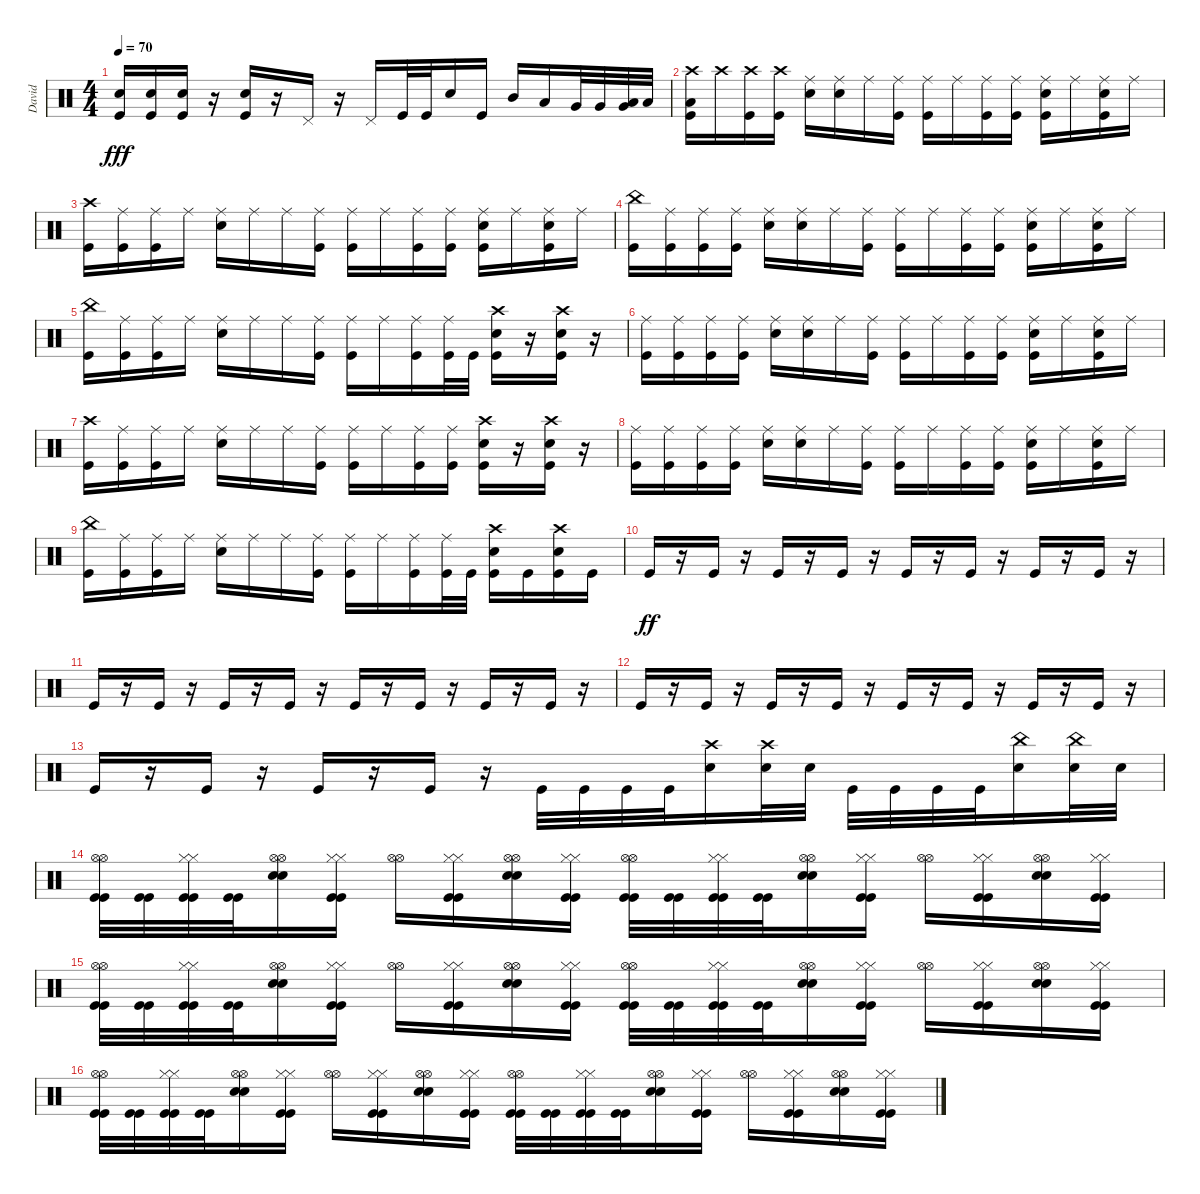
\track ("David" "David") {instrument percussion}
\staff {score}
\articulation defaults
\ts (4 4)
\tempo 70
\clef neutral
\ks c
("Kick (hit)" "Snare (hit) 2").16{dy fff} ("Kick (hit)" "Snare (hit) 2").16 ("Kick (hit)" "Snare (hit) 2").16 r.16 ("Kick (hit)" "Snare (hit) 2").16 r.16 "Pedal Hi-Hat (hit)".16 r.16 "Pedal Hi-Hat (hit)".16 "Kick (hit)".32 "Kick (hit)".32 "Snare (hit) 2".16 "Kick (hit)".16 "Mid Tom (hit)".16 "Low Tom (hit)".16 "Very Low Tom (hit)".32 "Very Low Tom (hit)".32 ("Very Low Tom (hit)" "Low Floor Tom (hit)").32 "Low Floor Tom (hit)".32 |
("Low Floor Tom (hit)" "Crash high (hit)" "Kick (hit)").16 "Crash high (hit)".16 ("Crash high (hit)" "Kick (hit)").16 ("Crash high (hit)" "Kick (hit)").16 ("Snare (hit) 2" "Ride (middle)").16 ("Snare (hit) 2" "Ride (middle)").16 "Ride (middle)".16 ("Kick (hit)" "Ride (middle)").16 ("Kick (hit)" "Ride (middle)").16 "Ride (middle)".16 ("Kick (hit)" "Ride (middle)").16 ("Kick (hit)" "Ride (middle)").16 ("Kick (hit)" "Snare (hit) 2" "Ride (middle)").16 "Ride (middle)".16 ("Kick (hit)" "Snare (hit) 2" "Ride (middle)").16 "Ride (middle)".16 |
("Kick (hit)" "Crash high (hit)").16 ("Kick (hit)" "Ride (middle)").16 ("Kick (hit)" "Ride (middle)").16 "Ride (middle)".16 ("Snare (hit) 2" "Ride (middle)").16 "Ride (middle)".16 "Ride (middle)".16 ("Kick (hit)" "Ride (middle)").16 ("Kick (hit)" "Ride (middle)").16 "Ride (middle)".16 ("Kick (hit)" "Ride (middle)").16 ("Kick (hit)" "Ride (middle)").16 ("Ride (middle)" "Kick (hit)" "Snare (hit) 2").16 "Ride (middle)".16 ("Ride (middle)" "Kick (hit)" "Snare (hit) 2").16 "Ride (middle)".16 |
("China (hit)" "Kick (hit)").16 ("Ride (middle)" "Kick (hit)").16 ("Ride (middle)" "Kick (hit)").16 ("Ride (middle)" "Kick (hit)").16 ("Ride (middle)" "Snare (hit) 2").16 ("Ride (middle)" "Snare (hit) 2").16 "Ride (middle)".16 ("Ride (middle)" "Kick (hit)").16 ("Ride (middle)" "Kick (hit)").16 "Ride (middle)".16 ("Ride (middle)" "Kick (hit)").16 ("Ride (middle)" "Kick (hit)").16 ("Ride (middle)" "Snare (hit) 2" "Kick (hit)").16 "Ride (middle)".16 ("Ride (middle)" "Snare (hit) 2" "Kick (hit)").16 "Ride (middle)".16 |
("China (hit)" "Kick (hit)").16 ("Ride (middle)" "Kick (hit)").16 ("Ride (middle)" "Kick (hit)").16 "Ride (middle)".16 ("Ride (middle)" "Snare (hit) 2").16 "Ride (middle)".16 "Ride (middle)".16 ("Ride (middle)" "Kick (hit)").16 ("Ride (middle)" "Kick (hit)").16 "Ride (middle)".16 ("Ride (middle)" "Kick (hit)").16 ("Ride (middle)" "Kick (hit)").32 "Kick (hit)".32 ("Crash high (hit)" "Snare (hit) 2" "Kick (hit)").16 r.16 ("Crash high (hit)" "Snare (hit) 2" "Kick (hit)").16 r.16 |
("Ride (middle)" "Kick (hit)").16 ("Ride (middle)" "Kick (hit)").16 ("Ride (middle)" "Kick (hit)").16 ("Ride (middle)" "Kick (hit)").16 ("Ride (middle)" "Snare (hit) 2").16 ("Ride (middle)" "Snare (hit) 2").16 "Ride (middle)".16 ("Ride (middle)" "Kick (hit)").16 ("Ride (middle)" "Kick (hit)").16 "Ride (middle)".16 ("Ride (middle)" "Kick (hit)").16 ("Ride (middle)" "Kick (hit)").16 ("Ride (middle)" "Snare (hit) 2" "Kick (hit)").16 "Ride (middle)".16 ("Ride (middle)" "Snare (hit) 2" "Kick (hit)").16 "Ride (middle)".16 |
("Crash high (hit)" "Kick (hit)").16 ("Ride (middle)" "Kick (hit)").16 ("Ride (middle)" "Kick (hit)").16 "Ride (middle)".16 ("Ride (middle)" "Snare (hit) 2").16 "Ride (middle)".16 "Ride (middle)".16 ("Ride (middle)" "Kick (hit)").16 ("Ride (middle)" "Kick (hit)").16 "Ride (middle)".16 ("Ride (middle)" "Kick (hit)").16 ("Ride (middle)" "Kick (hit)").16 ("Snare (hit) 2" "Kick (hit)" "Crash high (hit)").16 r.16 ("Snare (hit) 2" "Kick (hit)" "Crash high (hit)").16 r.16 |
("Kick (hit)" "Ride (middle)").16 ("Kick (hit)" "Ride (middle)").16 ("Kick (hit)" "Ride (middle)").16 ("Kick (hit)" "Ride (middle)").16 ("Snare (hit) 2" "Ride (middle)").16 ("Snare (hit) 2" "Ride (middle)").16 "Ride (middle)".16 ("Kick (hit)" "Ride (middle)").16 ("Kick (hit)" "Ride (middle)").16 "Ride (middle)".16 ("Kick (hit)" "Ride (middle)").16 ("Kick (hit)" "Ride (middle)").16 ("Kick (hit)" "Snare (hit) 2" "Ride (middle)").16 "Ride (middle)".16 ("Kick (hit)" "Snare (hit) 2" "Ride (middle)").16 "Ride (middle)".16 |
("Kick (hit)" "China (hit)").16 ("Kick (hit)" "Ride (middle)").16 ("Kick (hit)" "Ride (middle)").16 "Ride (middle)".16 ("Snare (hit) 2" "Ride (middle)").16 "Ride (middle)".16 "Ride (middle)".16 ("Kick (hit)" "Ride (middle)").16 ("Kick (hit)" "Ride (middle)").16 "Ride (middle)".16 ("Kick (hit)" "Ride (middle)").16 ("Kick (hit)" "Ride (middle)").32 "Kick (hit)".32 ("Kick (hit)" "Snare (hit) 2" "Crash high (hit)").16 "Kick (hit)".16 ("Kick (hit)" "Snare (hit) 2" "Crash high (hit)").16 "Kick (hit)".16 |
"Kick (hit)".16{dy ff} r.16 "Kick (hit)".16 r.16 "Kick (hit)".16 r.16 "Kick (hit)".16 r.16 "Kick (hit)".16 r.16 "Kick (hit)".16 r.16 "Kick (hit)".16 r.16 "Kick (hit)".16 r.16 |
"Kick (hit)".16 r.16 "Kick (hit)".16 r.16 "Kick (hit)".16 r.16 "Kick (hit)".16 r.16 "Kick (hit)".16 r.16 "Kick (hit)".16 r.16 "Kick (hit)".16 r.16 "Kick (hit)".16 r.16 |
"Kick (hit)".16 r.16 "Kick (hit)".16 r.16 "Kick (hit)".16 r.16 "Kick (hit)".16 r.16 "Kick (hit)".16 r.16 "Kick (hit)".16 r.16 "Kick (hit)".16 r.16 "Kick (hit)".16 r.16 |
"Kick (hit)".16 r.16 "Kick (hit)".16 r.16 "Kick (hit)".16 r.16 "Kick (hit)".16 r.16 "Kick (hit)".32 "Kick (hit)".32 "Kick (hit)".32 "Kick (hit)".32 ("Snare (hit) 2" "Crash high (hit)").16 ("Snare (hit) 2" "Crash high (hit)").32 "Snare (hit) 2".32 "Kick (hit)".32 "Kick (hit)".32 "Kick (hit)".32 "Kick (hit)".32 ("China (hit)" "Snare (hit) 2").16 ("China (hit)" "Snare (hit) 2").32 "Snare (hit) 2".32 |
("Kick (hit)" "Kick (hit)" "Hi-Hat (open)" "Hi-Hat (open)").32 ("Kick (hit)" "Kick (hit)").32 ("Kick (hit)" "Kick (hit)" "Hi-Hat (closed)" "Hi-Hat (closed)").32 ("Kick (hit)" "Kick (hit)").32 ("Snare (hit) 2" "Snare (hit) 2" "Hi-Hat (open)" "Hi-Hat (open)").16 ("Hi-Hat (closed)" "Hi-Hat (closed)" "Kick (hit)" "Kick (hit)").16 ("Hi-Hat (open)" "Hi-Hat (open)").16 ("Hi-Hat (closed)" "Hi-Hat (closed)" "Kick (hit)" "Kick (hit)").16 ("Hi-Hat (open)" "Hi-Hat (open)" "Snare (hit) 2" "Snare (hit) 2").16 ("Kick (hit)" "Kick (hit)" "Hi-Hat (closed)" "Hi-Hat (closed)").16 ("Hi-Hat (open)" "Hi-Hat (open)" "Kick (hit)" "Kick (hit)").32 ("Kick (hit)" "Kick (hit)").32 ("Kick (hit)" "Kick (hit)" "Hi-Hat (closed)" "Hi-Hat (closed)").32 ("Kick (hit)" "Kick (hit)").32 ("Snare (hit) 2" "Snare (hit) 2" "Hi-Hat (open)" "Hi-Hat (open)").16 ("Hi-Hat (closed)" "Hi-Hat (closed)" "Kick (hit)" "Kick (hit)").16 ("Hi-Hat (open)" "Hi-Hat (open)").16 ("Hi-Hat (closed)" "Hi-Hat (closed)" "Kick (hit)" "Kick (hit)").16 ("Snare (hit) 2" "Snare (hit) 2" "Hi-Hat (open)" "Hi-Hat (open)").16 ("Kick (hit)" "Kick (hit)" "Hi-Hat (closed)" "Hi-Hat (closed)").16 |
("Kick (hit)" "Kick (hit)" "Hi-Hat (open)" "Hi-Hat (open)").32 ("Kick (hit)" "Kick (hit)").32 ("Kick (hit)" "Kick (hit)" "Hi-Hat (closed)" "Hi-Hat (closed)").32 ("Kick (hit)" "Kick (hit)").32 ("Hi-Hat (open)" "Hi-Hat (open)" "Snare (hit) 2" "Snare (hit) 2").16 ("Kick (hit)" "Kick (hit)" "Hi-Hat (closed)" "Hi-Hat (closed)").16 ("Hi-Hat (open)" "Hi-Hat (open)").16 ("Kick (hit)" "Kick (hit)" "Hi-Hat (closed)" "Hi-Hat (closed)").16 ("Snare (hit) 2" "Snare (hit) 2" "Hi-Hat (open)" "Hi-Hat (open)").16 ("Kick (hit)" "Kick (hit)" "Hi-Hat (closed)" "Hi-Hat (closed)").16 ("Kick (hit)" "Kick (hit)" "Hi-Hat (open)" "Hi-Hat (open)").32 ("Kick (hit)" "Kick (hit)").32 ("Kick (hit)" "Kick (hit)" "Hi-Hat (closed)" "Hi-Hat (closed)").32 ("Kick (hit)" "Kick (hit)").32 ("Snare (hit) 2" "Snare (hit) 2" "Hi-Hat (open)" "Hi-Hat (open)").16 ("Kick (hit)" "Kick (hit)" "Hi-Hat (closed)" "Hi-Hat (closed)").16 ("Hi-Hat (open)" "Hi-Hat (open)").16 ("Hi-Hat (closed)" "Hi-Hat (closed)" "Kick (hit)" "Kick (hit)").16 ("Snare (hit) 2" "Snare (hit) 2" "Hi-Hat (open)" "Hi-Hat (open)").16 ("Kick (hit)" "Kick (hit)" "Hi-Hat (closed)" "Hi-Hat (closed)").16 |
("Kick (hit)" "Kick (hit)" "Hi-Hat (open)" "Hi-Hat (open)").32 ("Kick (hit)" "Kick (hit)").32 ("Kick (hit)" "Kick (hit)" "Hi-Hat (closed)" "Hi-Hat (closed)").32 ("Kick (hit)" "Kick (hit)").32 ("Hi-Hat (open)" "Hi-Hat (open)" "Snare (hit) 2" "Snare (hit) 2").16 ("Kick (hit)" "Kick (hit)" "Hi-Hat (closed)" "Hi-Hat (closed)").16 ("Hi-Hat (open)" "Hi-Hat (open)").16 ("Kick (hit)" "Kick (hit)" "Hi-Hat (closed)" "Hi-Hat (closed)").16 ("Hi-Hat (open)" "Hi-Hat (open)" "Snare (hit) 2" "Snare (hit) 2").16 ("Hi-Hat (closed)" "Hi-Hat (closed)" "Kick (hit)" "Kick (hit)").16 ("Hi-Hat (open)" "Hi-Hat (open)" "Kick (hit)" "Kick (hit)").32 ("Kick (hit)" "Kick (hit)").32 ("Kick (hit)" "Kick (hit)" "Hi-Hat (closed)" "Hi-Hat (closed)").32 ("Kick (hit)" "Kick (hit)").32 ("Snare (hit) 2" "Snare (hit) 2" "Hi-Hat (open)" "Hi-Hat (open)").16 ("Hi-Hat (closed)" "Hi-Hat (closed)" "Kick (hit)" "Kick (hit)").16 ("Hi-Hat (open)" "Hi-Hat (open)").16 ("Hi-Hat (closed)" "Hi-Hat (closed)" "Kick (hit)" "Kick (hit)").16 ("Snare (hit) 2" "Snare (hit) 2" "Hi-Hat (open)" "Hi-Hat (open)").16 ("Hi-Hat (closed)" "Hi-Hat (closed)" "Kick (hit)" "Kick (hit)").16
